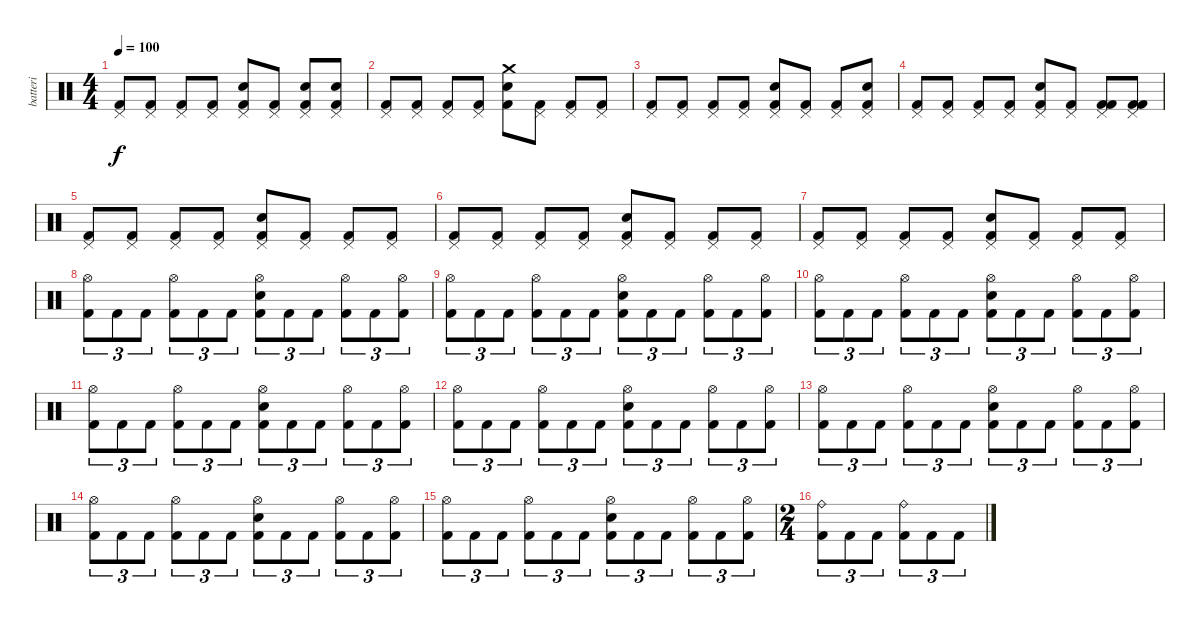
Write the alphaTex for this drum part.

\track ("batteri" "batteri") {instrument percussion}
\staff {score}
\articulation defaults
\ts (4 4)
\tempo 100
\clef neutral
\ks c
("Pedal Hi-Hat (hit)" "Kick (hit) 2").8{dy f} ("Pedal Hi-Hat (hit)" "Kick (hit) 2").8 ("Pedal Hi-Hat (hit)" "Kick (hit) 2").8 ("Pedal Hi-Hat (hit)" "Kick (hit) 2").8 ("Pedal Hi-Hat (hit)" "Electric Snare (hit)" "Kick (hit) 2").8 ("Pedal Hi-Hat (hit)" "Kick (hit) 2").8 ("Pedal Hi-Hat (hit)" "Electric Snare (hit)" "Kick (hit) 2").8 ("Pedal Hi-Hat (hit)" "Electric Snare (hit)" "Kick (hit) 2").8 |
("Pedal Hi-Hat (hit)" "Kick (hit) 2").8 ("Pedal Hi-Hat (hit)" "Kick (hit) 2").8 ("Pedal Hi-Hat (hit)" "Kick (hit) 2").8 ("Pedal Hi-Hat (hit)" "Kick (hit) 2").8 ("Crash medium (hit)" "Electric Snare (hit)" "Kick (hit) 2").8 ("Pedal Hi-Hat (hit)" "Kick (hit) 2").8 ("Pedal Hi-Hat (hit)" "Kick (hit) 2").8 ("Pedal Hi-Hat (hit)" "Kick (hit) 2").8 |
("Pedal Hi-Hat (hit)" "Kick (hit) 2").8 ("Pedal Hi-Hat (hit)" "Kick (hit) 2").8 ("Pedal Hi-Hat (hit)" "Kick (hit) 2").8 ("Pedal Hi-Hat (hit)" "Kick (hit) 2").8 ("Pedal Hi-Hat (hit)" "Electric Snare (hit)" "Kick (hit) 2").8 ("Pedal Hi-Hat (hit)" "Kick (hit) 2").8 ("Pedal Hi-Hat (hit)" "Kick (hit) 2").8 ("Pedal Hi-Hat (hit)" "Electric Snare (hit)" "Kick (hit) 2").8 |
("Pedal Hi-Hat (hit)" "Kick (hit) 2").8 ("Pedal Hi-Hat (hit)" "Kick (hit) 2").8 ("Pedal Hi-Hat (hit)" "Kick (hit) 2").8 ("Pedal Hi-Hat (hit)" "Kick (hit) 2").8 ("Pedal Hi-Hat (hit)" "Electric Snare (hit)" "Kick (hit) 2").8 ("Pedal Hi-Hat (hit)" "Kick (hit) 2").8 ("Pedal Hi-Hat (hit)" "Kick (hit) 2" "Kick (hit) 2").8 ("Pedal Hi-Hat (hit)" "Kick (hit) 2" "Kick (hit) 2").8 |
("Pedal Hi-Hat (hit)" "Kick (hit) 2").8 ("Pedal Hi-Hat (hit)" "Kick (hit) 2").8 ("Pedal Hi-Hat (hit)" "Kick (hit) 2").8 ("Pedal Hi-Hat (hit)" "Kick (hit) 2").8 ("Pedal Hi-Hat (hit)" "Electric Snare (hit)" "Kick (hit) 2").8 ("Pedal Hi-Hat (hit)" "Kick (hit) 2").8 ("Pedal Hi-Hat (hit)" "Kick (hit) 2").8 ("Pedal Hi-Hat (hit)" "Kick (hit) 2").8 |
("Pedal Hi-Hat (hit)" "Kick (hit) 2").8 ("Pedal Hi-Hat (hit)" "Kick (hit) 2").8 ("Pedal Hi-Hat (hit)" "Kick (hit) 2").8 ("Pedal Hi-Hat (hit)" "Kick (hit) 2").8 ("Pedal Hi-Hat (hit)" "Electric Snare (hit)" "Kick (hit) 2").8 ("Pedal Hi-Hat (hit)" "Kick (hit) 2").8 ("Pedal Hi-Hat (hit)" "Kick (hit) 2").8 ("Pedal Hi-Hat (hit)" "Kick (hit) 2").8 |
("Pedal Hi-Hat (hit)" "Kick (hit) 2").8 ("Pedal Hi-Hat (hit)" "Kick (hit) 2").8 ("Pedal Hi-Hat (hit)" "Kick (hit) 2").8 ("Pedal Hi-Hat (hit)" "Kick (hit) 2").8 ("Pedal Hi-Hat (hit)" "Electric Snare (hit)" "Kick (hit) 2").8 ("Pedal Hi-Hat (hit)" "Kick (hit) 2").8 ("Pedal Hi-Hat (hit)" "Kick (hit) 2").8 ("Pedal Hi-Hat (hit)" "Kick (hit) 2").8 |
("Hi-Hat (open)" "Kick (hit) 2").8{tu (3 2)} "Kick (hit) 2".8{tu (3 2)} "Kick (hit) 2".8{tu (3 2)} ("Hi-Hat (open)" "Kick (hit) 2").8{tu (3 2)} "Kick (hit) 2".8{tu (3 2)} "Kick (hit) 2".8{tu (3 2)} ("Hi-Hat (open)" "Kick (hit) 2" "Electric Snare (hit)").8{tu (3 2)} "Kick (hit) 2".8{tu (3 2)} "Kick (hit) 2".8{tu (3 2)} ("Hi-Hat (open)" "Kick (hit) 2").8{tu (3 2)} "Kick (hit) 2".8{tu (3 2)} ("Hi-Hat (open)" "Kick (hit) 2").8{tu (3 2)} |
("Hi-Hat (open)" "Kick (hit) 2").8{tu (3 2)} "Kick (hit) 2".8{tu (3 2)} "Kick (hit) 2".8{tu (3 2)} ("Hi-Hat (open)" "Kick (hit) 2").8{tu (3 2)} "Kick (hit) 2".8{tu (3 2)} "Kick (hit) 2".8{tu (3 2)} ("Hi-Hat (open)" "Kick (hit) 2" "Electric Snare (hit)").8{tu (3 2)} "Kick (hit) 2".8{tu (3 2)} "Kick (hit) 2".8{tu (3 2)} ("Hi-Hat (open)" "Kick (hit) 2").8{tu (3 2)} "Kick (hit) 2".8{tu (3 2)} ("Hi-Hat (open)" "Kick (hit) 2").8{tu (3 2)} |
("Hi-Hat (open)" "Kick (hit) 2").8{tu (3 2)} "Kick (hit) 2".8{tu (3 2)} "Kick (hit) 2".8{tu (3 2)} ("Hi-Hat (open)" "Kick (hit) 2").8{tu (3 2)} "Kick (hit) 2".8{tu (3 2)} "Kick (hit) 2".8{tu (3 2)} ("Hi-Hat (open)" "Kick (hit) 2" "Electric Snare (hit)").8{tu (3 2)} "Kick (hit) 2".8{tu (3 2)} "Kick (hit) 2".8{tu (3 2)} ("Hi-Hat (open)" "Kick (hit) 2").8{tu (3 2)} "Kick (hit) 2".8{tu (3 2)} ("Hi-Hat (open)" "Kick (hit) 2").8{tu (3 2)} |
("Hi-Hat (open)" "Kick (hit) 2").8{tu (3 2)} "Kick (hit) 2".8{tu (3 2)} "Kick (hit) 2".8{tu (3 2)} ("Hi-Hat (open)" "Kick (hit) 2").8{tu (3 2)} "Kick (hit) 2".8{tu (3 2)} "Kick (hit) 2".8{tu (3 2)} ("Hi-Hat (open)" "Kick (hit) 2" "Electric Snare (hit)").8{tu (3 2)} "Kick (hit) 2".8{tu (3 2)} "Kick (hit) 2".8{tu (3 2)} ("Hi-Hat (open)" "Kick (hit) 2").8{tu (3 2)} "Kick (hit) 2".8{tu (3 2)} ("Hi-Hat (open)" "Kick (hit) 2").8{tu (3 2)} |
("Hi-Hat (open)" "Kick (hit) 2").8{tu (3 2)} "Kick (hit) 2".8{tu (3 2)} "Kick (hit) 2".8{tu (3 2)} ("Hi-Hat (open)" "Kick (hit) 2").8{tu (3 2)} "Kick (hit) 2".8{tu (3 2)} "Kick (hit) 2".8{tu (3 2)} ("Hi-Hat (open)" "Kick (hit) 2" "Electric Snare (hit)").8{tu (3 2)} "Kick (hit) 2".8{tu (3 2)} "Kick (hit) 2".8{tu (3 2)} ("Hi-Hat (open)" "Kick (hit) 2").8{tu (3 2)} "Kick (hit) 2".8{tu (3 2)} ("Hi-Hat (open)" "Kick (hit) 2").8{tu (3 2)} |
("Hi-Hat (open)" "Kick (hit) 2").8{tu (3 2)} "Kick (hit) 2".8{tu (3 2)} "Kick (hit) 2".8{tu (3 2)} ("Hi-Hat (open)" "Kick (hit) 2").8{tu (3 2)} "Kick (hit) 2".8{tu (3 2)} "Kick (hit) 2".8{tu (3 2)} ("Hi-Hat (open)" "Kick (hit) 2" "Electric Snare (hit)").8{tu (3 2)} "Kick (hit) 2".8{tu (3 2)} "Kick (hit) 2".8{tu (3 2)} ("Hi-Hat (open)" "Kick (hit) 2").8{tu (3 2)} "Kick (hit) 2".8{tu (3 2)} ("Hi-Hat (open)" "Kick (hit) 2").8{tu (3 2)} |
("Hi-Hat (open)" "Kick (hit) 2").8{tu (3 2)} "Kick (hit) 2".8{tu (3 2)} "Kick (hit) 2".8{tu (3 2)} ("Hi-Hat (open)" "Kick (hit) 2").8{tu (3 2)} "Kick (hit) 2".8{tu (3 2)} "Kick (hit) 2".8{tu (3 2)} ("Hi-Hat (open)" "Kick (hit) 2" "Electric Snare (hit)").8{tu (3 2)} "Kick (hit) 2".8{tu (3 2)} "Kick (hit) 2".8{tu (3 2)} ("Hi-Hat (open)" "Kick (hit) 2").8{tu (3 2)} "Kick (hit) 2".8{tu (3 2)} ("Hi-Hat (open)" "Kick (hit) 2").8{tu (3 2)} |
("Hi-Hat (open)" "Kick (hit) 2").8{tu (3 2)} "Kick (hit) 2".8{tu (3 2)} "Kick (hit) 2".8{tu (3 2)} ("Hi-Hat (open)" "Kick (hit) 2").8{tu (3 2)} "Kick (hit) 2".8{tu (3 2)} "Kick (hit) 2".8{tu (3 2)} ("Hi-Hat (open)" "Kick (hit) 2" "Electric Snare (hit)").8{tu (3 2)} "Kick (hit) 2".8{tu (3 2)} "Kick (hit) 2".8{tu (3 2)} ("Hi-Hat (open)" "Kick (hit) 2").8{tu (3 2)} "Kick (hit) 2".8{tu (3 2)} ("Hi-Hat (open)" "Kick (hit) 2").8{tu (3 2)} |
\ts (2 4)
("Ride (bell)" "Kick (hit) 2").8{tu (3 2)} "Kick (hit) 2".8{tu (3 2)} "Kick (hit) 2".8{tu (3 2)} ("Ride (bell)" "Kick (hit) 2").8{tu (3 2)} "Kick (hit) 2".8{tu (3 2)} "Kick (hit) 2".8{tu (3 2)}
